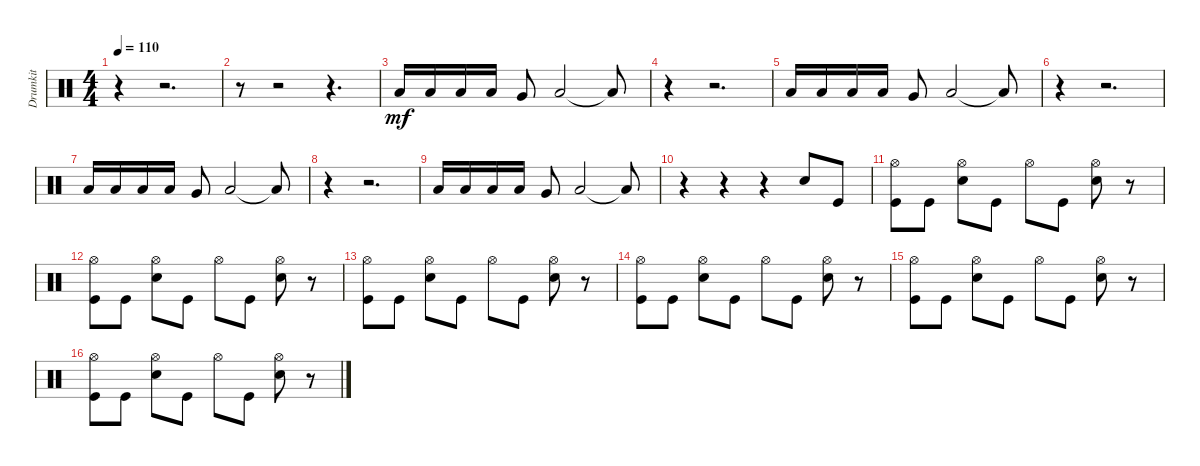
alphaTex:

\track ("Drumkit" "Drumkit") {instrument percussion}
\staff {score}
\articulation defaults
\ts (4 4)
\tempo 110
\clef neutral
\ks c
r.4{dy mf} r.2{d} |
r.8 r.2 r.4{d} |
"Low Tom (hit)".16 "Low Tom (hit)".16 "Low Tom (hit)".16 "Low Tom (hit)".16 "Very Low Tom (hit)".8 "Low Tom (hit)".2 "Low Tom (hit)"{t}.8 |
r.4 r.2{d} |
"Low Tom (hit)".16 "Low Tom (hit)".16 "Low Tom (hit)".16 "Low Tom (hit)".16 "Very Low Tom (hit)".8 "Low Tom (hit)".2 "Low Tom (hit)"{t}.8 |
r.4 r.2{d} |
"Low Tom (hit)".16 "Low Tom (hit)".16 "Low Tom (hit)".16 "Low Tom (hit)".16 "Very Low Tom (hit)".8 "Low Tom (hit)".2 "Low Tom (hit)"{t}.8 |
r.4 r.2{d} |
"Low Tom (hit)".16 "Low Tom (hit)".16 "Low Tom (hit)".16 "Low Tom (hit)".16 "Very Low Tom (hit)".8 "Low Tom (hit)".2 "Low Tom (hit)"{t}.8 |
r.4 r.4 r.4 "Snare (hit) 2".8 "Kick (hit)".8 |
("Kick (hit)" "Hi-Hat (open)").8 "Kick (hit)".8 ("Hi-Hat (open)" "Snare (hit) 2").8 "Kick (hit)".8 "Hi-Hat (open)".8 "Kick (hit)".8 ("Snare (hit) 2" "Hi-Hat (open)").8 r.8 |
("Kick (hit)" "Hi-Hat (open)").8 "Kick (hit)".8 ("Hi-Hat (open)" "Snare (hit) 2").8 "Kick (hit)".8 "Hi-Hat (open)".8 "Kick (hit)".8 ("Snare (hit) 2" "Hi-Hat (open)").8 r.8 |
("Kick (hit)" "Hi-Hat (open)").8 "Kick (hit)".8 ("Hi-Hat (open)" "Snare (hit) 2").8 "Kick (hit)".8 "Hi-Hat (open)".8 "Kick (hit)".8 ("Snare (hit) 2" "Hi-Hat (open)").8 r.8 |
("Kick (hit)" "Hi-Hat (open)").8 "Kick (hit)".8 ("Hi-Hat (open)" "Snare (hit) 2").8 "Kick (hit)".8 "Hi-Hat (open)".8 "Kick (hit)".8 ("Snare (hit) 2" "Hi-Hat (open)").8 r.8 |
("Kick (hit)" "Hi-Hat (open)").8 "Kick (hit)".8 ("Hi-Hat (open)" "Snare (hit) 2").8 "Kick (hit)".8 "Hi-Hat (open)".8 "Kick (hit)".8 ("Snare (hit) 2" "Hi-Hat (open)").8 r.8 |
("Kick (hit)" "Hi-Hat (open)").8 "Kick (hit)".8 ("Hi-Hat (open)" "Snare (hit) 2").8 "Kick (hit)".8 "Hi-Hat (open)".8 "Kick (hit)".8 ("Snare (hit) 2" "Hi-Hat (open)").8 r.8
